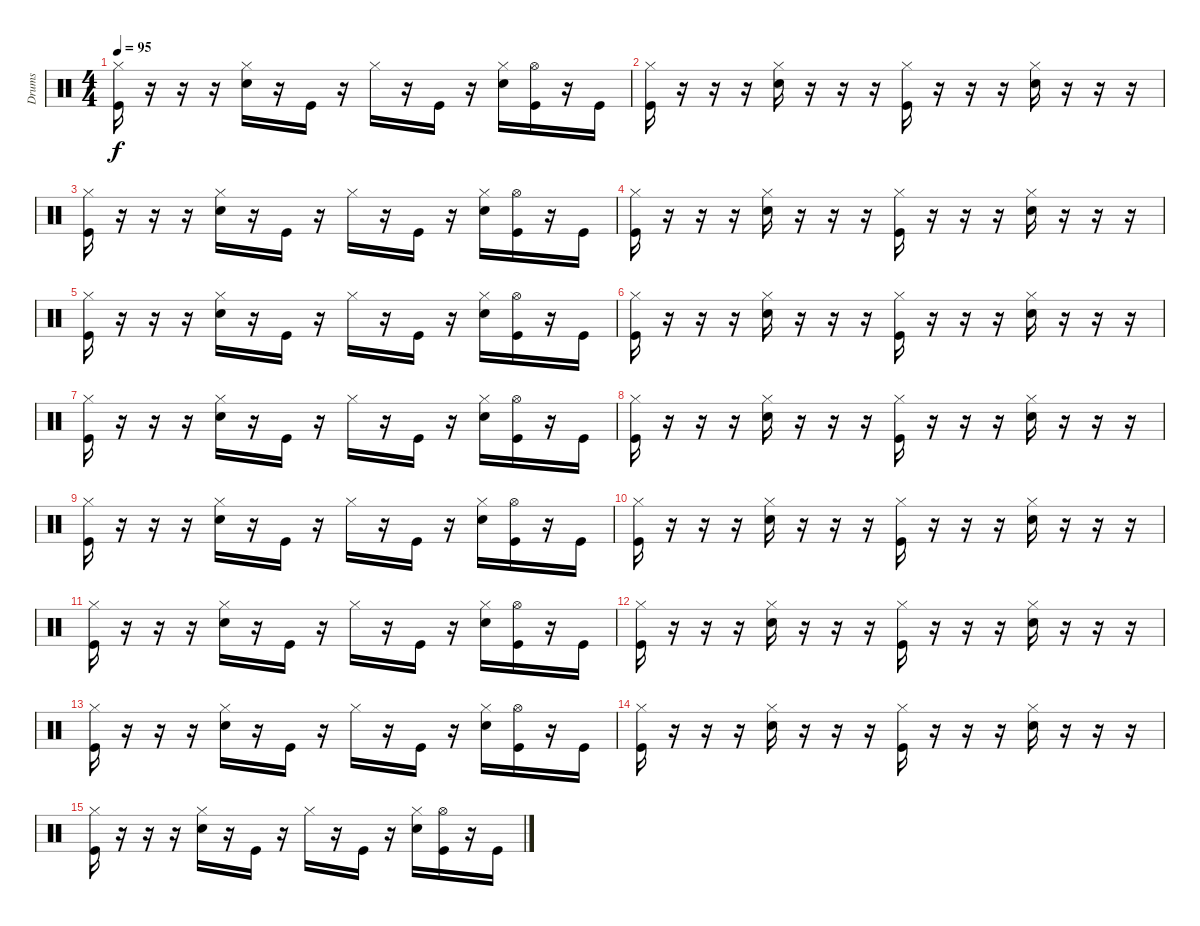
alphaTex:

\track ("Drums" "Drums") {instrument percussion bank 177}
\staff {score}
\articulation defaults
\ts (4 4)
\tempo 95
\clef neutral
\ks c
("Hi-Hat (closed)" "Kick (hit)").16{dy f} r.16 r.16 r.16 ("Hi-Hat (closed)" "Snare (hit) 2").16 r.16 "Kick (hit)".16 r.16 "Hi-Hat (closed)".16 r.16 "Kick (hit)".16 r.16 ("Hi-Hat (closed)" "Snare (hit) 2").16 ("Hi-Hat (open)" "Kick (hit)").16 r.16 "Kick (hit)".16 |
("Hi-Hat (closed)" "Kick (hit)").16 r.16 r.16 r.16 ("Hi-Hat (closed)" "Snare (hit) 2").16 r.16 r.16 r.16 ("Hi-Hat (closed)" "Kick (hit)").16 r.16 r.16 r.16 ("Hi-Hat (closed)" "Snare (hit) 2").16 r.16 r.16 r.16 |
("Hi-Hat (closed)" "Kick (hit)").16 r.16 r.16 r.16 ("Hi-Hat (closed)" "Snare (hit) 2").16 r.16 "Kick (hit)".16 r.16 "Hi-Hat (closed)".16 r.16 "Kick (hit)".16 r.16 ("Hi-Hat (closed)" "Snare (hit) 2").16 ("Hi-Hat (open)" "Kick (hit)").16 r.16 "Kick (hit)".16 |
("Hi-Hat (closed)" "Kick (hit)").16 r.16 r.16 r.16 ("Hi-Hat (closed)" "Snare (hit) 2").16 r.16 r.16 r.16 ("Hi-Hat (closed)" "Kick (hit)").16 r.16 r.16 r.16 ("Hi-Hat (closed)" "Snare (hit) 2").16 r.16 r.16 r.16 |
("Hi-Hat (closed)" "Kick (hit)").16 r.16 r.16 r.16 ("Hi-Hat (closed)" "Snare (hit) 2").16 r.16 "Kick (hit)".16 r.16 "Hi-Hat (closed)".16 r.16 "Kick (hit)".16 r.16 ("Hi-Hat (closed)" "Snare (hit) 2").16 ("Hi-Hat (open)" "Kick (hit)").16 r.16 "Kick (hit)".16 |
("Hi-Hat (closed)" "Kick (hit)").16 r.16 r.16 r.16 ("Hi-Hat (closed)" "Snare (hit) 2").16 r.16 r.16 r.16 ("Hi-Hat (closed)" "Kick (hit)").16 r.16 r.16 r.16 ("Hi-Hat (closed)" "Snare (hit) 2").16 r.16 r.16 r.16 |
("Hi-Hat (closed)" "Kick (hit)").16 r.16 r.16 r.16 ("Hi-Hat (closed)" "Snare (hit) 2").16 r.16 "Kick (hit)".16 r.16 "Hi-Hat (closed)".16 r.16 "Kick (hit)".16 r.16 ("Hi-Hat (closed)" "Snare (hit) 2").16 ("Hi-Hat (open)" "Kick (hit)").16 r.16 "Kick (hit)".16 |
("Hi-Hat (closed)" "Kick (hit)").16 r.16 r.16 r.16 ("Hi-Hat (closed)" "Snare (hit) 2").16 r.16 r.16 r.16 ("Hi-Hat (closed)" "Kick (hit)").16 r.16 r.16 r.16 ("Hi-Hat (closed)" "Snare (hit) 2").16 r.16 r.16 r.16 |
("Hi-Hat (closed)" "Kick (hit)").16 r.16 r.16 r.16 ("Hi-Hat (closed)" "Snare (hit) 2").16 r.16 "Kick (hit)".16 r.16 "Hi-Hat (closed)".16 r.16 "Kick (hit)".16 r.16 ("Hi-Hat (closed)" "Snare (hit) 2").16 ("Hi-Hat (open)" "Kick (hit)").16 r.16 "Kick (hit)".16 |
("Hi-Hat (closed)" "Kick (hit)").16 r.16 r.16 r.16 ("Hi-Hat (closed)" "Snare (hit) 2").16 r.16 r.16 r.16 ("Hi-Hat (closed)" "Kick (hit)").16 r.16 r.16 r.16 ("Hi-Hat (closed)" "Snare (hit) 2").16 r.16 r.16 r.16 |
("Hi-Hat (closed)" "Kick (hit)").16 r.16 r.16 r.16 ("Hi-Hat (closed)" "Snare (hit) 2").16 r.16 "Kick (hit)".16 r.16 "Hi-Hat (closed)".16 r.16 "Kick (hit)".16 r.16 ("Hi-Hat (closed)" "Snare (hit) 2").16 ("Hi-Hat (open)" "Kick (hit)").16 r.16 "Kick (hit)".16 |
("Hi-Hat (closed)" "Kick (hit)").16 r.16 r.16 r.16 ("Hi-Hat (closed)" "Snare (hit) 2").16 r.16 r.16 r.16 ("Hi-Hat (closed)" "Kick (hit)").16 r.16 r.16 r.16 ("Hi-Hat (closed)" "Snare (hit) 2").16 r.16 r.16 r.16 |
("Hi-Hat (closed)" "Kick (hit)").16 r.16 r.16 r.16 ("Hi-Hat (closed)" "Snare (hit) 2").16 r.16 "Kick (hit)".16 r.16 "Hi-Hat (closed)".16 r.16 "Kick (hit)".16 r.16 ("Hi-Hat (closed)" "Snare (hit) 2").16 ("Hi-Hat (open)" "Kick (hit)").16 r.16 "Kick (hit)".16 |
("Hi-Hat (closed)" "Kick (hit)").16 r.16 r.16 r.16 ("Hi-Hat (closed)" "Snare (hit) 2").16 r.16 r.16 r.16 ("Hi-Hat (closed)" "Kick (hit)").16 r.16 r.16 r.16 ("Hi-Hat (closed)" "Snare (hit) 2").16 r.16 r.16 r.16 |
("Hi-Hat (closed)" "Kick (hit)").16 r.16 r.16 r.16 ("Hi-Hat (closed)" "Snare (hit) 2").16 r.16 "Kick (hit)".16 r.16 "Hi-Hat (closed)".16 r.16 "Kick (hit)".16 r.16 ("Hi-Hat (closed)" "Snare (hit) 2").16 ("Hi-Hat (open)" "Kick (hit)").16 r.16 "Kick (hit)".16
